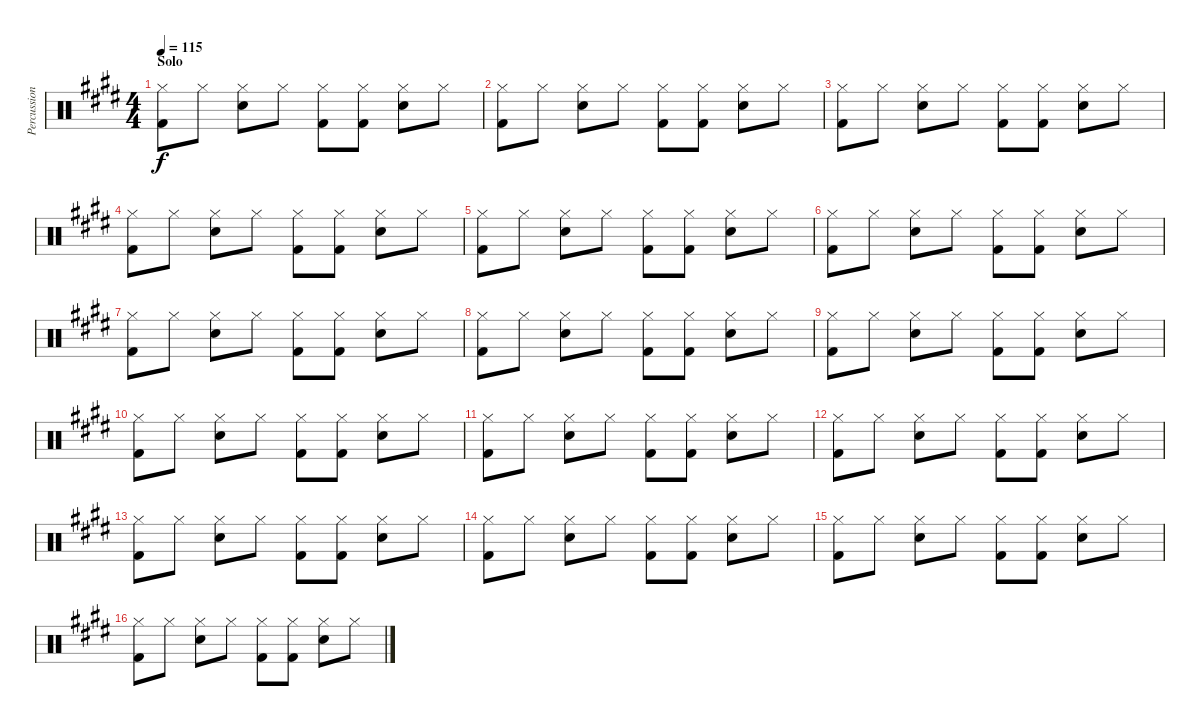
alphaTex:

\track ("Percussion" "Percussion") {instrument percussion}
\staff {score}
\articulation defaults
\ts (4 4)
\section ("" "Solo")
\tempo 115
\clef neutral
\ks e
("Kick (hit) 2" "Hi-Hat (closed)").8{dy f} "Hi-Hat (closed)".8 ("Electric Snare (hit)" "Hi-Hat (closed)").8 "Hi-Hat (closed)".8 ("Kick (hit) 2" "Hi-Hat (closed)").8 ("Kick (hit) 2" "Hi-Hat (closed)").8 ("Electric Snare (hit)" "Hi-Hat (closed)").8 "Hi-Hat (closed)".8 |
("Kick (hit) 2" "Hi-Hat (closed)").8 "Hi-Hat (closed)".8 ("Electric Snare (hit)" "Hi-Hat (closed)").8 "Hi-Hat (closed)".8 ("Kick (hit) 2" "Hi-Hat (closed)").8 ("Kick (hit) 2" "Hi-Hat (closed)").8 ("Electric Snare (hit)" "Hi-Hat (closed)").8 "Hi-Hat (closed)".8 |
("Kick (hit) 2" "Hi-Hat (closed)").8 "Hi-Hat (closed)".8 ("Electric Snare (hit)" "Hi-Hat (closed)").8 "Hi-Hat (closed)".8 ("Kick (hit) 2" "Hi-Hat (closed)").8 ("Kick (hit) 2" "Hi-Hat (closed)").8 ("Electric Snare (hit)" "Hi-Hat (closed)").8 "Hi-Hat (closed)".8 |
("Kick (hit) 2" "Hi-Hat (closed)").8 "Hi-Hat (closed)".8 ("Electric Snare (hit)" "Hi-Hat (closed)").8 "Hi-Hat (closed)".8 ("Kick (hit) 2" "Hi-Hat (closed)").8 ("Kick (hit) 2" "Hi-Hat (closed)").8 ("Electric Snare (hit)" "Hi-Hat (closed)").8 "Hi-Hat (closed)".8 |
("Kick (hit) 2" "Hi-Hat (closed)").8 "Hi-Hat (closed)".8 ("Electric Snare (hit)" "Hi-Hat (closed)").8 "Hi-Hat (closed)".8 ("Kick (hit) 2" "Hi-Hat (closed)").8 ("Kick (hit) 2" "Hi-Hat (closed)").8 ("Electric Snare (hit)" "Hi-Hat (closed)").8 "Hi-Hat (closed)".8 |
("Kick (hit) 2" "Hi-Hat (closed)").8 "Hi-Hat (closed)".8 ("Electric Snare (hit)" "Hi-Hat (closed)").8 "Hi-Hat (closed)".8 ("Kick (hit) 2" "Hi-Hat (closed)").8 ("Kick (hit) 2" "Hi-Hat (closed)").8 ("Electric Snare (hit)" "Hi-Hat (closed)").8 "Hi-Hat (closed)".8 |
("Kick (hit) 2" "Hi-Hat (closed)").8 "Hi-Hat (closed)".8 ("Electric Snare (hit)" "Hi-Hat (closed)").8 "Hi-Hat (closed)".8 ("Kick (hit) 2" "Hi-Hat (closed)").8 ("Kick (hit) 2" "Hi-Hat (closed)").8 ("Electric Snare (hit)" "Hi-Hat (closed)").8 "Hi-Hat (closed)".8 |
("Kick (hit) 2" "Hi-Hat (closed)").8 "Hi-Hat (closed)".8 ("Electric Snare (hit)" "Hi-Hat (closed)").8 "Hi-Hat (closed)".8 ("Kick (hit) 2" "Hi-Hat (closed)").8 ("Kick (hit) 2" "Hi-Hat (closed)").8 ("Electric Snare (hit)" "Hi-Hat (closed)").8 "Hi-Hat (closed)".8 |
("Kick (hit) 2" "Hi-Hat (closed)").8 "Hi-Hat (closed)".8 ("Electric Snare (hit)" "Hi-Hat (closed)").8 "Hi-Hat (closed)".8 ("Kick (hit) 2" "Hi-Hat (closed)").8 ("Kick (hit) 2" "Hi-Hat (closed)").8 ("Electric Snare (hit)" "Hi-Hat (closed)").8 "Hi-Hat (closed)".8 |
("Kick (hit) 2" "Hi-Hat (closed)").8 "Hi-Hat (closed)".8 ("Electric Snare (hit)" "Hi-Hat (closed)").8 "Hi-Hat (closed)".8 ("Kick (hit) 2" "Hi-Hat (closed)").8 ("Kick (hit) 2" "Hi-Hat (closed)").8 ("Electric Snare (hit)" "Hi-Hat (closed)").8 "Hi-Hat (closed)".8 |
("Kick (hit) 2" "Hi-Hat (closed)").8 "Hi-Hat (closed)".8 ("Electric Snare (hit)" "Hi-Hat (closed)").8 "Hi-Hat (closed)".8 ("Kick (hit) 2" "Hi-Hat (closed)").8 ("Kick (hit) 2" "Hi-Hat (closed)").8 ("Electric Snare (hit)" "Hi-Hat (closed)").8 "Hi-Hat (closed)".8 |
("Kick (hit) 2" "Hi-Hat (closed)").8 "Hi-Hat (closed)".8 ("Electric Snare (hit)" "Hi-Hat (closed)").8 "Hi-Hat (closed)".8 ("Kick (hit) 2" "Hi-Hat (closed)").8 ("Kick (hit) 2" "Hi-Hat (closed)").8 ("Electric Snare (hit)" "Hi-Hat (closed)").8 "Hi-Hat (closed)".8 |
("Kick (hit) 2" "Hi-Hat (closed)").8 "Hi-Hat (closed)".8 ("Electric Snare (hit)" "Hi-Hat (closed)").8 "Hi-Hat (closed)".8 ("Kick (hit) 2" "Hi-Hat (closed)").8 ("Kick (hit) 2" "Hi-Hat (closed)").8 ("Electric Snare (hit)" "Hi-Hat (closed)").8 "Hi-Hat (closed)".8 |
("Kick (hit) 2" "Hi-Hat (closed)").8 "Hi-Hat (closed)".8 ("Electric Snare (hit)" "Hi-Hat (closed)").8 "Hi-Hat (closed)".8 ("Kick (hit) 2" "Hi-Hat (closed)").8 ("Kick (hit) 2" "Hi-Hat (closed)").8 ("Electric Snare (hit)" "Hi-Hat (closed)").8 "Hi-Hat (closed)".8 |
("Kick (hit) 2" "Hi-Hat (closed)").8 "Hi-Hat (closed)".8 ("Electric Snare (hit)" "Hi-Hat (closed)").8 "Hi-Hat (closed)".8 ("Kick (hit) 2" "Hi-Hat (closed)").8 ("Kick (hit) 2" "Hi-Hat (closed)").8 ("Electric Snare (hit)" "Hi-Hat (closed)").8 "Hi-Hat (closed)".8 |
("Kick (hit) 2" "Hi-Hat (closed)").8 "Hi-Hat (closed)".8 ("Electric Snare (hit)" "Hi-Hat (closed)").8 "Hi-Hat (closed)".8 ("Kick (hit) 2" "Hi-Hat (closed)").8 ("Kick (hit) 2" "Hi-Hat (closed)").8 ("Electric Snare (hit)" "Hi-Hat (closed)").8 "Hi-Hat (closed)".8
